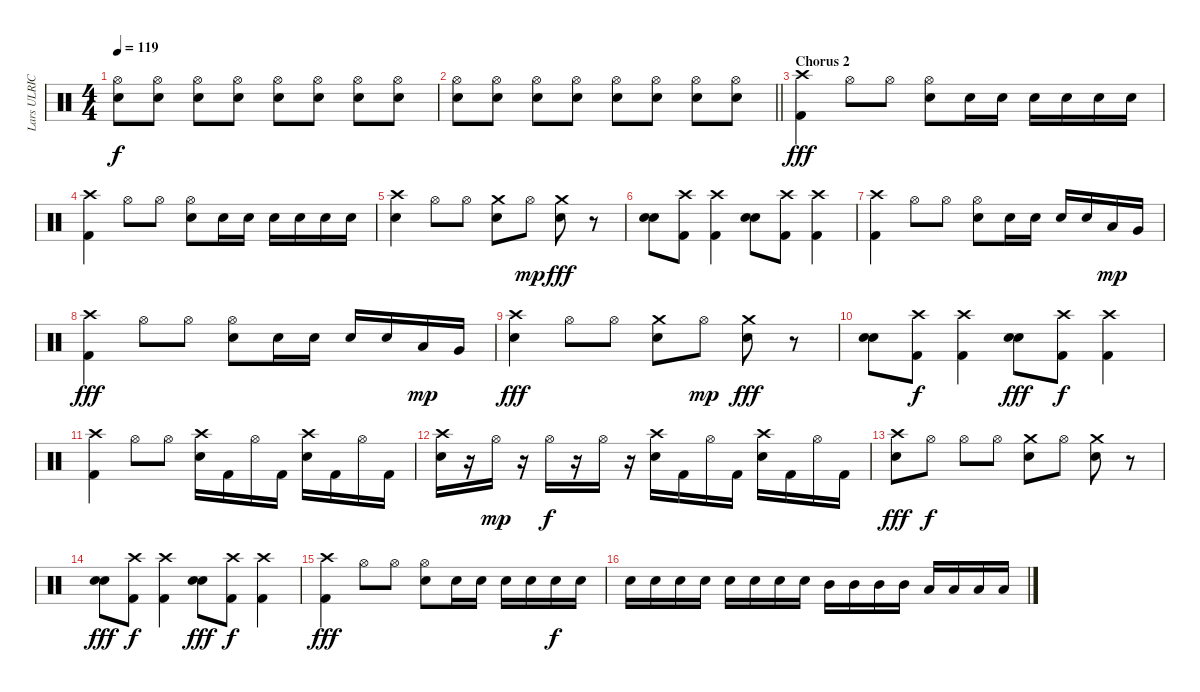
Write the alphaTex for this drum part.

\track ("Lars ULRICH" "Lars ULRIC") {instrument percussion}
\staff {score}
\articulation defaults
\ts (4 4)
\tempo 119
\clef neutral
\ks c
("Hi-Hat (open)" "Snare (hit) 2").8{dy f} ("Hi-Hat (open)" "Snare (hit) 2").8 ("Hi-Hat (open)" "Snare (hit) 2").8 ("Hi-Hat (open)" "Snare (hit) 2").8 ("Hi-Hat (open)" "Snare (hit) 2").8 ("Hi-Hat (open)" "Snare (hit) 2").8 ("Hi-Hat (open)" "Snare (hit) 2").8 ("Hi-Hat (open)" "Snare (hit) 2").8 |
\barLineRight lightlight
("Hi-Hat (open)" "Snare (hit) 2").8 ("Hi-Hat (open)" "Snare (hit) 2").8 ("Hi-Hat (open)" "Snare (hit) 2").8 ("Hi-Hat (open)" "Snare (hit) 2").8 ("Hi-Hat (open)" "Snare (hit) 2").8 ("Hi-Hat (open)" "Snare (hit) 2").8 ("Hi-Hat (open)" "Snare (hit) 2").8 ("Hi-Hat (open)" "Snare (hit) 2").8 |
\section ("" "Chorus 2")
("Crash high (hit)" "Kick (hit) 2").4{dy fff} "Hi-Hat (open)".8 "Hi-Hat (open)".8 ("Hi-Hat (open)" "Snare (hit) 2").8 "Snare (hit) 2".16 "Snare (hit) 2".16 "Snare (hit) 2".16 "Snare (hit) 2".16 "Snare (hit) 2".16 "Snare (hit) 2".16 |
("Crash high (hit)" "Kick (hit) 2").4 "Hi-Hat (open)".8 "Hi-Hat (open)".8 ("Hi-Hat (open)" "Snare (hit) 2").8 "Snare (hit) 2".16 "Snare (hit) 2".16 "Snare (hit) 2".16 "Snare (hit) 2".16 "Snare (hit) 2".16 "Snare (hit) 2".16 |
("Crash high (hit)" "Snare (hit) 2").4 "Hi-Hat (open)".8 "Hi-Hat (open)".8 ("Crash medium (hit)" "Snare (hit) 2").8 "Hi-Hat (open)".8{dy mp} ("Crash medium (hit)" "Snare (hit) 2").8{dy fff} r.8 |
("Snare (hit) 2" "Snare (hit) 2").8 ("Crash high (hit)" "Kick (hit) 2").8 ("Crash high (hit)" "Kick (hit) 2").4 ("Snare (hit) 2" "Snare (hit) 2").8 ("Crash high (hit)" "Kick (hit) 2").8 ("Crash high (hit)" "Kick (hit) 2").4 |
("Crash high (hit)" "Kick (hit) 2").4 "Hi-Hat (open)".8 "Hi-Hat (open)".8 ("Hi-Hat (open)" "Snare (hit) 2").8 "Snare (hit) 2".16 "Snare (hit) 2".16 "Snare (hit) 2".16 "Snare (hit) 2".16 "Low Tom (hit)".16{dy mp} "Very Low Tom (hit)".16 |
("Crash high (hit)" "Kick (hit) 2").4{dy fff} "Hi-Hat (open)".8 "Hi-Hat (open)".8 ("Hi-Hat (open)" "Snare (hit) 2").8 "Snare (hit) 2".16 "Snare (hit) 2".16 "Snare (hit) 2".16 "Snare (hit) 2".16 "Low Tom (hit)".16{dy mp} "Very Low Tom (hit)".16 |
("Crash high (hit)" "Snare (hit) 2").4{dy fff} "Hi-Hat (open)".8 "Hi-Hat (open)".8 ("Crash medium (hit)" "Snare (hit) 2").8 "Hi-Hat (open)".8{dy mp} ("Crash medium (hit)" "Snare (hit) 2").8{dy fff} r.8 |
("Snare (hit) 2" "Snare (hit) 2").8 ("Crash high (hit)" "Kick (hit) 2").8{dy f} ("Crash high (hit)" "Kick (hit) 2").4 ("Snare (hit) 2" "Snare (hit) 2").8{dy fff} ("Crash high (hit)" "Kick (hit) 2").8{dy f} ("Crash high (hit)" "Kick (hit) 2").4 |
("Crash high (hit)" "Kick (hit) 2").4 "Hi-Hat (open)".8 "Hi-Hat (open)".8 ("Crash high (hit)" "Snare (hit) 2").16 "Kick (hit) 2".16 "Hi-Hat (open)".16 "Kick (hit) 2".16 ("Crash high (hit)" "Snare (hit) 2").16 "Kick (hit) 2".16 "Hi-Hat (open)".16 "Kick (hit) 2".16 |
("Crash high (hit)" "Snare (hit) 2").16 r.16 "Hi-Hat (open)".16{dy mp} r.16 "Hi-Hat (open)".16{dy f} r.16 "Hi-Hat (open)".16 r.16 ("Crash high (hit)" "Snare (hit) 2").16 "Kick (hit) 2".16 "Hi-Hat (open)".16 "Kick (hit) 2".16 ("Crash high (hit)" "Snare (hit) 2").16 "Kick (hit) 2".16 "Hi-Hat (open)".16 "Kick (hit) 2".16 |
("Crash high (hit)" "Snare (hit) 2").8{dy fff} "Hi-Hat (open)".8{dy f} "Hi-Hat (open)".8 "Hi-Hat (open)".8 ("Crash medium (hit)" "Snare (hit) 2").8 "Hi-Hat (open)".8 ("Crash medium (hit)" "Snare (hit) 2").8 r.8 |
("Snare (hit) 2" "Snare (hit) 2").8{dy fff} ("Crash high (hit)" "Kick (hit) 2").8{dy f} ("Crash high (hit)" "Kick (hit) 2").4 ("Snare (hit) 2" "Snare (hit) 2").8{dy fff} ("Crash high (hit)" "Kick (hit) 2").8{dy f} ("Crash high (hit)" "Kick (hit) 2").4 |
("Crash high (hit)" "Kick (hit) 2").4{dy fff} "Hi-Hat (open)".8 "Hi-Hat (open)".8 ("Hi-Hat (open)" "Snare (hit) 2").8 "Snare (hit) 2".16 "Snare (hit) 2".16 "Snare (hit) 2".16 "Snare (hit) 2".16 "Snare (hit) 2".16{dy f} "Snare (hit) 2".16 |
"Snare (hit) 2".16 "Snare (hit) 2".16 "Snare (hit) 2".16 "Snare (hit) 2".16 "Snare (hit) 2".16 "Snare (hit) 2".16 "Snare (hit) 2".16 "Snare (hit) 2".16 "Mid Tom (hit)".16 "Mid Tom (hit)".16 "Mid Tom (hit)".16 "Mid Tom (hit)".16 "Low Tom (hit)".16 "Low Tom (hit)".16 "Low Tom (hit)".16 "Low Tom (hit)".16
